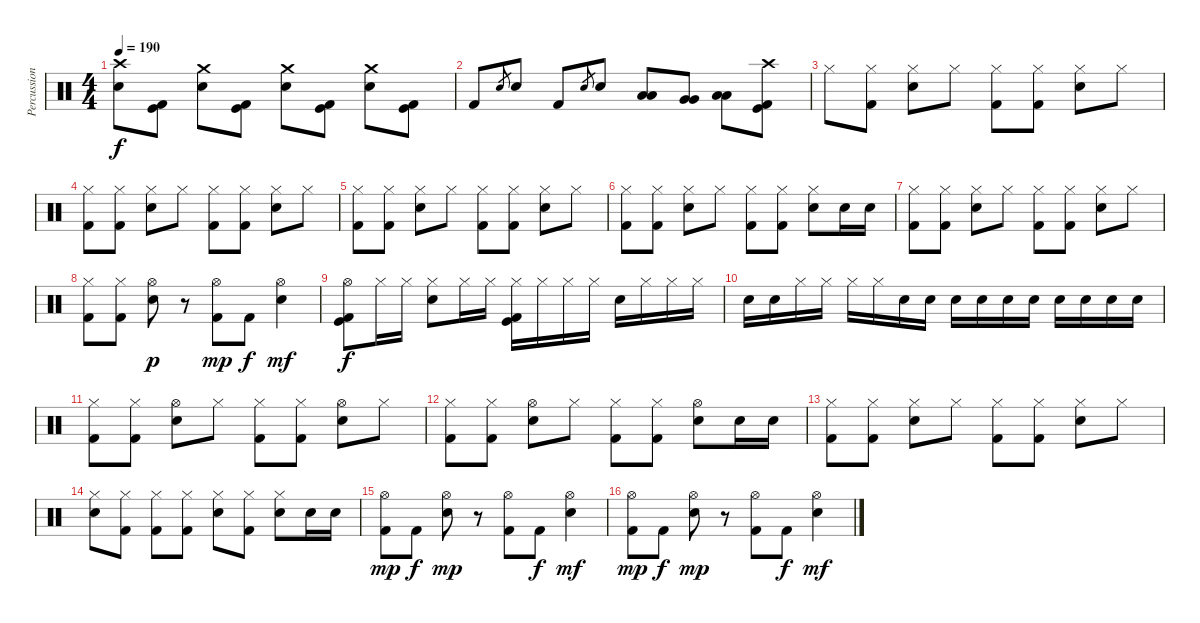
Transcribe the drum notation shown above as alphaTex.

\track ("Percussions" "Percussion") {instrument percussion}
\staff {score}
\articulation defaults
\ts (4 4)
\tempo 190
\clef neutral
\ks c
("Crash high (hit)" "Electric Snare (hit)").8{dy f} ("Kick (hit)" "Kick (hit) 2").8 ("Crash medium (hit)" "Electric Snare (hit)").8 ("Kick (hit)" "Kick (hit) 2").8 ("Crash medium (hit)" "Electric Snare (hit)").8 ("Kick (hit)" "Kick (hit) 2").8 ("Crash medium (hit)" "Electric Snare (hit)").8 ("Kick (hit)" "Kick (hit) 2").8 |
"Kick (hit) 2".8 "Electric Snare (hit)".8{gr} "Electric Snare (hit)".8 "Kick (hit) 2".8 "Electric Snare (hit)".8{gr} "Electric Snare (hit)".8 ("Low Tom (hit)" "Low Tom (hit)").8 ("Very Low Tom (hit)" "Very Low Tom (hit)").8 ("Low Floor Tom (hit)" "Low Floor Tom (hit)").8 ("Crash high (hit)" "Kick (hit)" "Kick (hit) 2").8 |
"Hi-Hat (closed)".8 ("Hi-Hat (closed)" "Kick (hit) 2").8 ("Hi-Hat (closed)" "Electric Snare (hit)").8 "Hi-Hat (closed)".8 ("Hi-Hat (closed)" "Kick (hit) 2").8 ("Hi-Hat (closed)" "Kick (hit) 2").8 ("Hi-Hat (closed)" "Electric Snare (hit)").8 "Hi-Hat (closed)".8 |
("Hi-Hat (closed)" "Kick (hit) 2").8 ("Hi-Hat (closed)" "Kick (hit) 2").8 ("Hi-Hat (closed)" "Electric Snare (hit)").8 "Hi-Hat (closed)".8 ("Hi-Hat (closed)" "Kick (hit) 2").8 ("Hi-Hat (closed)" "Kick (hit) 2").8 ("Hi-Hat (closed)" "Electric Snare (hit)").8 "Hi-Hat (closed)".8 |
("Hi-Hat (closed)" "Kick (hit) 2").8 ("Hi-Hat (closed)" "Kick (hit) 2").8 ("Hi-Hat (closed)" "Electric Snare (hit)").8 "Hi-Hat (closed)".8 ("Hi-Hat (closed)" "Kick (hit) 2").8 ("Hi-Hat (closed)" "Kick (hit) 2").8 ("Hi-Hat (closed)" "Electric Snare (hit)").8 "Hi-Hat (closed)".8 |
("Hi-Hat (closed)" "Kick (hit) 2").8 ("Hi-Hat (closed)" "Kick (hit) 2").8 ("Hi-Hat (closed)" "Electric Snare (hit)").8 "Hi-Hat (closed)".8 ("Hi-Hat (closed)" "Kick (hit) 2").8 ("Hi-Hat (closed)" "Kick (hit) 2").8 ("Hi-Hat (closed)" "Electric Snare (hit)").8 "Electric Snare (hit)".16 "Electric Snare (hit)".16 |
("Hi-Hat (closed)" "Kick (hit) 2").8 ("Hi-Hat (closed)" "Kick (hit) 2").8 ("Hi-Hat (closed)" "Electric Snare (hit)").8 "Hi-Hat (closed)".8 ("Hi-Hat (closed)" "Kick (hit) 2").8 ("Hi-Hat (closed)" "Kick (hit) 2").8 ("Hi-Hat (closed)" "Electric Snare (hit)").8 "Hi-Hat (closed)".8 |
("Hi-Hat (closed)" "Kick (hit) 2").8 ("Hi-Hat (closed)" "Kick (hit) 2").8 ("Hi-Hat (open)" "Electric Snare (hit)").8{dy p} r.8 ("Hi-Hat (open)" "Kick (hit) 2").8{dy mp} "Kick (hit) 2".8{dy f} ("Hi-Hat (open)" "Electric Snare (hit)").4{dy mf} |
("Hi-Hat (open)" "Kick (hit)" "Kick (hit) 2").8{dy f} "Hi-Hat (closed)".16 "Hi-Hat (closed)".16 ("Hi-Hat (closed)" "Electric Snare (hit)").8 "Hi-Hat (closed)".16 "Hi-Hat (closed)".16 ("Hi-Hat (closed)" "Kick (hit)" "Kick (hit) 2").16 "Hi-Hat (closed)".16 "Hi-Hat (closed)".16 "Hi-Hat (closed)".16 "Electric Snare (hit)".16 "Hi-Hat (closed)".16 "Hi-Hat (closed)".16 "Hi-Hat (closed)".16 |
"Electric Snare (hit)".16 "Electric Snare (hit)".16 "Hi-Hat (closed)".16 "Hi-Hat (closed)".16 "Hi-Hat (closed)".16 "Hi-Hat (closed)".16 "Electric Snare (hit)".16 "Electric Snare (hit)".16 "Electric Snare (hit)".16 "Electric Snare (hit)".16 "Electric Snare (hit)".16 "Electric Snare (hit)".16 "Electric Snare (hit)".16 "Electric Snare (hit)".16 "Electric Snare (hit)".16 "Electric Snare (hit)".16 |
("Hi-Hat (closed)" "Kick (hit) 2").8 ("Hi-Hat (closed)" "Kick (hit) 2").8 ("Hi-Hat (open)" "Electric Snare (hit)").8 "Hi-Hat (closed)".8 ("Hi-Hat (closed)" "Kick (hit) 2").8 ("Hi-Hat (closed)" "Kick (hit) 2").8 ("Hi-Hat (open)" "Electric Snare (hit)").8 "Hi-Hat (closed)".8 |
("Hi-Hat (closed)" "Kick (hit) 2").8 ("Hi-Hat (closed)" "Kick (hit) 2").8 ("Hi-Hat (open)" "Electric Snare (hit)").8 "Hi-Hat (closed)".8 ("Hi-Hat (closed)" "Kick (hit) 2").8 ("Hi-Hat (closed)" "Kick (hit) 2").8 ("Hi-Hat (open)" "Electric Snare (hit)").8 "Electric Snare (hit)".16 "Electric Snare (hit)".16 |
("Hi-Hat (closed)" "Kick (hit) 2").8 ("Hi-Hat (closed)" "Kick (hit) 2").8 ("Hi-Hat (closed)" "Electric Snare (hit)").8 "Hi-Hat (closed)".8 ("Hi-Hat (closed)" "Kick (hit) 2").8 ("Hi-Hat (closed)" "Kick (hit) 2").8 ("Hi-Hat (closed)" "Electric Snare (hit)").8 "Hi-Hat (closed)".8 |
("Hi-Hat (closed)" "Electric Snare (hit)").8 ("Hi-Hat (closed)" "Kick (hit) 2").8 ("Hi-Hat (closed)" "Kick (hit) 2").8 ("Hi-Hat (closed)" "Kick (hit) 2").8 ("Hi-Hat (closed)" "Electric Snare (hit)").8 ("Hi-Hat (closed)" "Kick (hit) 2").8 ("Hi-Hat (closed)" "Electric Snare (hit)").8 "Electric Snare (hit)".16 "Electric Snare (hit)".16 |
("Hi-Hat (open)" "Kick (hit) 2").8{dy mp} "Kick (hit) 2".8{dy f} ("Hi-Hat (open)" "Electric Snare (hit)").8{dy mp} r.8 ("Hi-Hat (open)" "Kick (hit) 2").8 "Kick (hit) 2".8{dy f} ("Hi-Hat (open)" "Electric Snare (hit)").4{dy mf} |
("Hi-Hat (open)" "Kick (hit) 2").8{dy mp} "Kick (hit) 2".8{dy f} ("Hi-Hat (open)" "Electric Snare (hit)").8{dy mp} r.8 ("Hi-Hat (open)" "Kick (hit) 2").8 "Kick (hit) 2".8{dy f} ("Hi-Hat (open)" "Electric Snare (hit)").4{dy mf}
